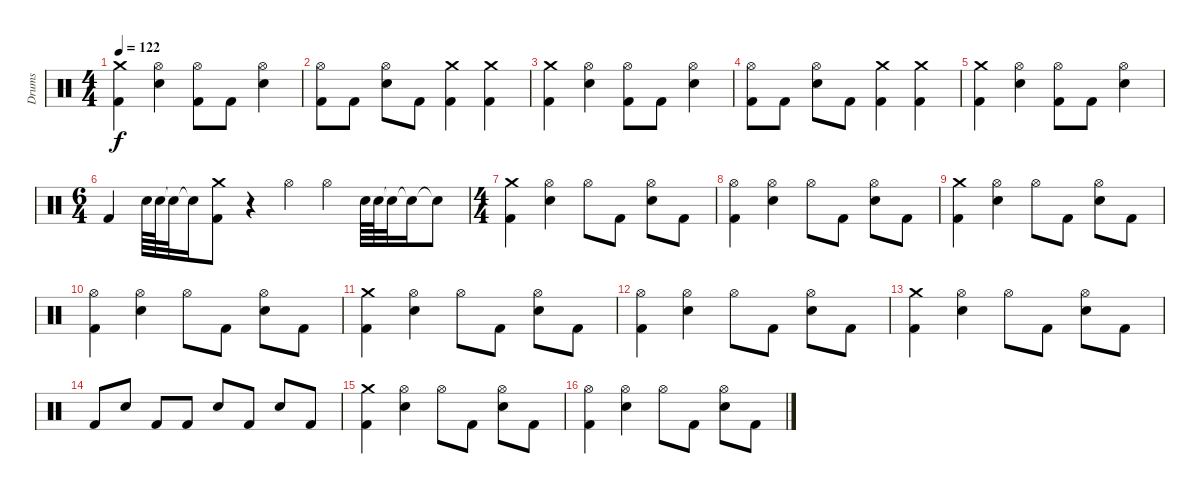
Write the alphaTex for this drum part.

\track ("Drums" "Drums") {instrument percussion}
\staff {score}
\articulation defaults
\ts (4 4)
\tempo 122
\clef neutral
\ks c
("Crash medium (hit)" "Kick (hit) 2").4{dy f} ("Hi-Hat (open)" "Electric Snare (hit)").4 ("Hi-Hat (open)" "Kick (hit) 2").8 "Kick (hit) 2".8 ("Hi-Hat (open)" "Electric Snare (hit)").4 |
("Hi-Hat (open)" "Kick (hit) 2").8 "Kick (hit) 2".8 ("Hi-Hat (open)" "Electric Snare (hit)").8 "Kick (hit) 2".8 ("Crash medium (hit)" "Kick (hit) 2").4 ("Crash medium (hit)" "Kick (hit) 2").4 |
("Crash medium (hit)" "Kick (hit) 2").4 ("Hi-Hat (open)" "Electric Snare (hit)").4 ("Hi-Hat (open)" "Kick (hit) 2").8 "Kick (hit) 2".8 ("Hi-Hat (open)" "Electric Snare (hit)").4 |
("Hi-Hat (open)" "Kick (hit) 2").8 "Kick (hit) 2".8 ("Hi-Hat (open)" "Electric Snare (hit)").8 "Kick (hit) 2".8 ("Crash medium (hit)" "Kick (hit) 2").4 ("Crash medium (hit)" "Kick (hit) 2").4 |
("Crash medium (hit)" "Kick (hit) 2").4 ("Hi-Hat (open)" "Electric Snare (hit)").4 ("Hi-Hat (open)" "Kick (hit) 2").8 "Kick (hit) 2".8 ("Hi-Hat (open)" "Electric Snare (hit)").4 |
\ts (6 4)
"Kick (hit) 2".4 "Electric Snare (hit)".64 "Electric Snare (hit)".64 "Snare (hit)"{t}.32 "Snare (hit)"{t}.16 ("Crash medium (hit)" "Kick (hit) 2").8 r.4 "Hi-Hat (open)".4 "Hi-Hat (open)".4 "Electric Snare (hit)".64 "Electric Snare (hit)".64 "Snare (hit)"{t}.32 "Snare (hit)"{t}.16 "Snare (hit)"{t}.8 |
\ts (4 4)
("Crash medium (hit)" "Kick (hit) 2").4 ("Hi-Hat (open)" "Electric Snare (hit)").4 "Hi-Hat (open)".8 "Kick (hit) 2".8 ("Hi-Hat (open)" "Electric Snare (hit)").8 "Kick (hit) 2".8 |
("Hi-Hat (open)" "Kick (hit) 2").4 ("Hi-Hat (open)" "Electric Snare (hit)").4 "Hi-Hat (open)".8 "Kick (hit) 2".8 ("Hi-Hat (open)" "Electric Snare (hit)").8 "Kick (hit) 2".8 |
("Crash medium (hit)" "Kick (hit) 2").4 ("Hi-Hat (open)" "Electric Snare (hit)").4 "Hi-Hat (open)".8 "Kick (hit) 2".8 ("Hi-Hat (open)" "Electric Snare (hit)").8 "Kick (hit) 2".8 |
("Hi-Hat (open)" "Kick (hit) 2").4 ("Hi-Hat (open)" "Electric Snare (hit)").4 "Hi-Hat (open)".8 "Kick (hit) 2".8 ("Hi-Hat (open)" "Electric Snare (hit)").8 "Kick (hit) 2".8 |
("Crash medium (hit)" "Kick (hit) 2").4 ("Hi-Hat (open)" "Electric Snare (hit)").4 "Hi-Hat (open)".8 "Kick (hit) 2".8 ("Hi-Hat (open)" "Electric Snare (hit)").8 "Kick (hit) 2".8 |
("Hi-Hat (open)" "Kick (hit) 2").4 ("Hi-Hat (open)" "Electric Snare (hit)").4 "Hi-Hat (open)".8 "Kick (hit) 2".8 ("Hi-Hat (open)" "Electric Snare (hit)").8 "Kick (hit) 2".8 |
("Crash medium (hit)" "Kick (hit) 2").4 ("Hi-Hat (open)" "Electric Snare (hit)").4 "Hi-Hat (open)".8 "Kick (hit) 2".8 ("Hi-Hat (open)" "Electric Snare (hit)").8 "Kick (hit) 2".8 |
"Kick (hit) 2".8 "Electric Snare (hit)".8 "Kick (hit) 2".8 "Kick (hit) 2".8 "Electric Snare (hit)".8 "Kick (hit) 2".8 "Electric Snare (hit)".8 "Kick (hit) 2".8 |
("Crash medium (hit)" "Kick (hit) 2").4 ("Hi-Hat (open)" "Electric Snare (hit)").4 "Hi-Hat (open)".8 "Kick (hit) 2".8 ("Hi-Hat (open)" "Electric Snare (hit)").8 "Kick (hit) 2".8 |
("Hi-Hat (open)" "Kick (hit) 2").4 ("Hi-Hat (open)" "Electric Snare (hit)").4 "Hi-Hat (open)".8 "Kick (hit) 2".8 ("Hi-Hat (open)" "Electric Snare (hit)").8 "Kick (hit) 2".8
